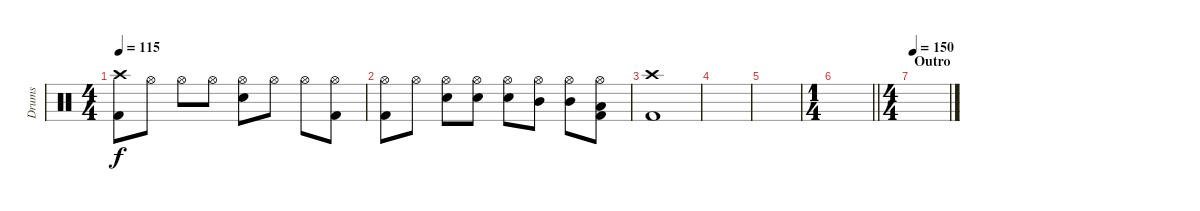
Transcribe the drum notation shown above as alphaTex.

\track ("Drums" "Drums") {instrument percussion}
\staff
\articulation defaults
\ts (4 4)
\tempo 115
\clef neutral
\ks c
("Crash high (hit)" "Kick (hit) 2").8{dy f} "Hi-Hat (open)".8 "Hi-Hat (open)".8 "Hi-Hat (open)".8 ("Snare (hit) 2" "Hi-Hat (open)").8 "Hi-Hat (open)".8 "Hi-Hat (open)".8 ("Hi-Hat (open)" "Kick (hit) 2").8 |
("Hi-Hat (open)" "Kick (hit) 2").8 "Hi-Hat (open)".8 ("Snare (hit) 2" "Hi-Hat (open)").8 ("Snare (hit) 2" "Hi-Hat (open)").8 ("Snare (hit) 2" "Hi-Hat (open)").8 ("Mid Tom (hit)" "Hi-Hat (open)").8 ("Mid Tom (hit)" "Hi-Hat (open)").8 ("Low Tom (hit)" "Hi-Hat (open)" "Kick (hit) 2").8 |
("Crash high (hit)" "Kick (hit) 2").1 |
|
|
\ts (1 4)
\barLineRight lightlight
|
\ts (4 4)
\section ("" "Outro")
\tempo 150
